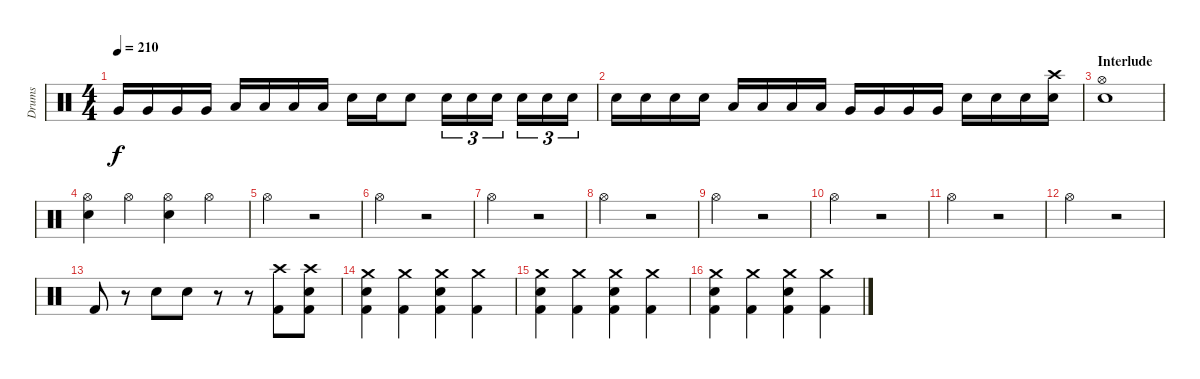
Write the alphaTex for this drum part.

\track ("Drums" "Drums") {instrument percussion}
\staff {score}
\articulation defaults
\ts (4 4)
\tempo 210
\clef neutral
\ks c "Very Low Tom (hit)".16{dy f} "Very Low Tom (hit)".16 "Very Low Tom (hit)".16 "Very Low Tom (hit)".16 "Low Floor Tom (hit)".16 "Low Floor Tom (hit)".16 "Low Floor Tom (hit)".16 "Low Floor Tom (hit)".16 "Electric Snare (hit)".16 "Electric Snare (hit)".16 "Electric Snare (hit)".8 "Electric Snare (hit)".16{tu (3 2)} "Electric Snare (hit)".16{tu (3 2)} "Electric Snare (hit)".16{tu (3 2)} "Electric Snare (hit)".16{tu (3 2)} "Electric Snare (hit)".16{tu (3 2)} "Electric Snare (hit)".16{tu (3 2)}
|
"Electric Snare (hit)".16 "Electric Snare (hit)".16 "Electric Snare (hit)".16 "Electric Snare (hit)".16 "Low Tom (hit)".16 "Low Tom (hit)".16 "Low Tom (hit)".16 "Low Tom (hit)".16 "Very Low Tom (hit)".16 "Very Low Tom (hit)".16 "Very Low Tom (hit)".16 "Very Low Tom (hit)".16 "Electric Snare (hit)".16 "Electric Snare (hit)".16 "Electric Snare (hit)".16 ("Electric Snare (hit)" "Crash high (hit)").16 |
\section ("" "Interlude")
("Hi-Hat (open)" "Electric Snare (hit)").1 |
("Hi-Hat (open)" "Electric Snare (hit)").4 "Hi-Hat (open)".4 ("Hi-Hat (open)" "Electric Snare (hit)").4 "Hi-Hat (open)".4 |
"Hi-Hat (open)".2 r.2 |
"Hi-Hat (open)".2 r.2 |
"Hi-Hat (open)".2 r.2 |
"Hi-Hat (open)".2 r.2 |
"Hi-Hat (open)".2 r.2 |
"Hi-Hat (open)".2 r.2 |
"Hi-Hat (open)".2 r.2 |
"Hi-Hat (open)".2 r.2 |
"Kick (hit) 2".8 r.8 "Electric Snare (hit)".8 "Electric Snare (hit)".8 r.8 r.8 ("Kick (hit) 2" "Crash high (hit)").8 ("Electric Snare (hit)" "Kick (hit) 2" "Crash high (hit)").8 |
("Kick (hit) 2" "Electric Snare (hit)" "Crash medium (hit)").4 ("Kick (hit) 2" "Crash medium (hit)").4 ("Kick (hit) 2" "Electric Snare (hit)" "Crash medium (hit)").4 ("Kick (hit) 2" "Crash medium (hit)").4 |
("Kick (hit) 2" "Electric Snare (hit)" "Crash medium (hit)").4 ("Kick (hit) 2" "Crash medium (hit)").4 ("Kick (hit) 2" "Electric Snare (hit)" "Crash medium (hit)").4 ("Kick (hit) 2" "Crash medium (hit)").4 |
("Kick (hit) 2" "Electric Snare (hit)" "Crash medium (hit)").4 ("Kick (hit) 2" "Crash medium (hit)").4 ("Kick (hit) 2" "Electric Snare (hit)" "Crash medium (hit)").4 ("Kick (hit) 2" "Crash medium (hit)").4
